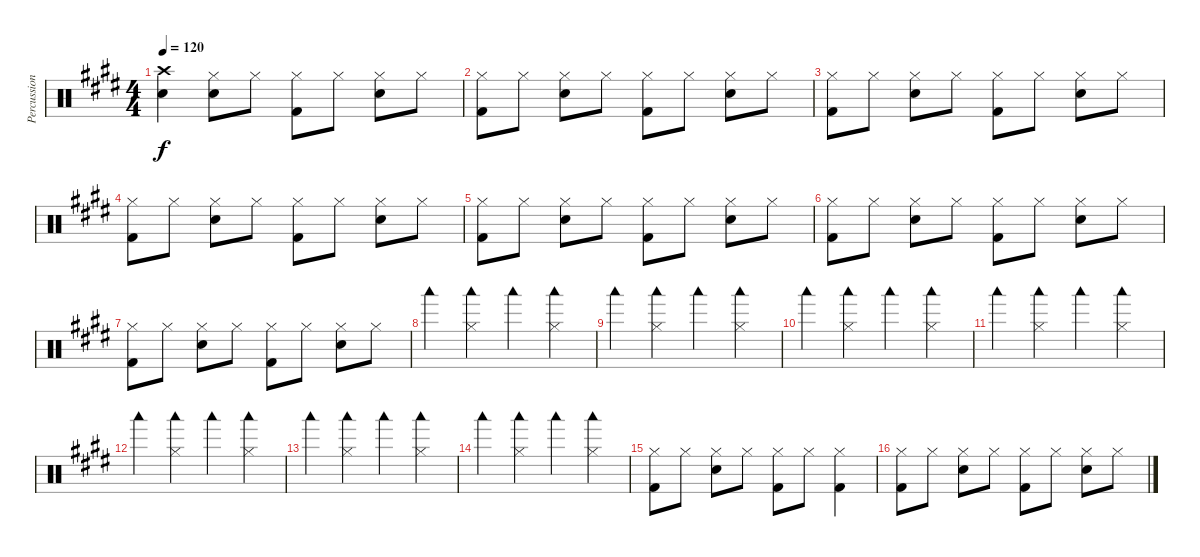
\track ("Percussion" "Percussion") {instrument percussion}
\staff {score}
\articulation defaults
\ts (4 4)
\tempo 120
\clef neutral
\ks e
("Crash high (hit)" "Snare (hit) 2").4{dy f} ("Hi-Hat (closed)" "Snare (hit) 2").8 "Hi-Hat (closed)".8 ("Hi-Hat (closed)" "Kick (hit) 2").8 "Hi-Hat (closed)".8 ("Hi-Hat (closed)" "Snare (hit) 2").8 "Hi-Hat (closed)".8 |
("Hi-Hat (closed)" "Kick (hit) 2").8 "Hi-Hat (closed)".8 ("Hi-Hat (closed)" "Snare (hit) 2").8 "Hi-Hat (closed)".8 ("Hi-Hat (closed)" "Kick (hit) 2").8 "Hi-Hat (closed)".8 ("Hi-Hat (closed)" "Snare (hit) 2").8 "Hi-Hat (closed)".8 |
("Hi-Hat (closed)" "Kick (hit) 2").8 "Hi-Hat (closed)".8 ("Hi-Hat (closed)" "Snare (hit) 2").8 "Hi-Hat (closed)".8 ("Hi-Hat (closed)" "Kick (hit) 2").8 "Hi-Hat (closed)".8 ("Hi-Hat (closed)" "Snare (hit) 2").8 "Hi-Hat (closed)".8 |
("Hi-Hat (closed)" "Kick (hit) 2").8 "Hi-Hat (closed)".8 ("Hi-Hat (closed)" "Snare (hit) 2").8 "Hi-Hat (closed)".8 ("Hi-Hat (closed)" "Kick (hit) 2").8 "Hi-Hat (closed)".8 ("Hi-Hat (closed)" "Snare (hit) 2").8 "Hi-Hat (closed)".8 |
("Hi-Hat (closed)" "Kick (hit) 2").8 "Hi-Hat (closed)".8 ("Hi-Hat (closed)" "Snare (hit) 2").8 "Hi-Hat (closed)".8 ("Hi-Hat (closed)" "Kick (hit) 2").8 "Hi-Hat (closed)".8 ("Hi-Hat (closed)" "Snare (hit) 2").8 "Hi-Hat (closed)".8 |
("Hi-Hat (closed)" "Kick (hit) 2").8 "Hi-Hat (closed)".8 ("Hi-Hat (closed)" "Snare (hit) 2").8 "Hi-Hat (closed)".8 ("Hi-Hat (closed)" "Kick (hit) 2").8 "Hi-Hat (closed)".8 ("Hi-Hat (closed)" "Snare (hit) 2").8 "Hi-Hat (closed)".8 |
("Hi-Hat (closed)" "Kick (hit) 2").8 "Hi-Hat (closed)".8 ("Hi-Hat (closed)" "Snare (hit) 2").8 "Hi-Hat (closed)".8 ("Hi-Hat (closed)" "Kick (hit) 2").8 "Hi-Hat (closed)".8 ("Hi-Hat (closed)" "Snare (hit) 2").8 "Hi-Hat (closed)".8 |
"Woodblock low (hit)".4 ("Hi-Hat (closed)" "Woodblock low (hit)").4 "Woodblock low (hit)".4 ("Hi-Hat (closed)" "Woodblock low (hit)").4 |
"Woodblock low (hit)".4 ("Hi-Hat (closed)" "Woodblock low (hit)").4 "Woodblock low (hit)".4 ("Hi-Hat (closed)" "Woodblock low (hit)").4 |
"Woodblock low (hit)".4 ("Hi-Hat (closed)" "Woodblock low (hit)").4 "Woodblock low (hit)".4 ("Hi-Hat (closed)" "Woodblock low (hit)").4 |
"Woodblock low (hit)".4 ("Hi-Hat (closed)" "Woodblock low (hit)").4 "Woodblock low (hit)".4 ("Hi-Hat (closed)" "Woodblock low (hit)").4 |
"Woodblock low (hit)".4 ("Hi-Hat (closed)" "Woodblock low (hit)").4 "Woodblock low (hit)".4 ("Hi-Hat (closed)" "Woodblock low (hit)").4 |
"Woodblock low (hit)".4 ("Hi-Hat (closed)" "Woodblock low (hit)").4 "Woodblock low (hit)".4 ("Hi-Hat (closed)" "Woodblock low (hit)").4 |
"Woodblock low (hit)".4 ("Hi-Hat (closed)" "Woodblock low (hit)").4 "Woodblock low (hit)".4 ("Hi-Hat (closed)" "Woodblock low (hit)").4 |
("Hi-Hat (closed)" "Kick (hit) 2").8 "Hi-Hat (closed)".8 ("Hi-Hat (closed)" "Snare (hit) 2").8 "Hi-Hat (closed)".8 ("Hi-Hat (closed)" "Kick (hit) 2").8 "Hi-Hat (closed)".8 ("Hi-Hat (closed)" "Kick (hit) 2").4 |
("Hi-Hat (closed)" "Kick (hit) 2").8 "Hi-Hat (closed)".8 ("Hi-Hat (closed)" "Snare (hit) 2").8 "Hi-Hat (closed)".8 ("Hi-Hat (closed)" "Kick (hit) 2").8 "Hi-Hat (closed)".8 ("Hi-Hat (closed)" "Snare (hit) 2").8 "Hi-Hat (closed)".8
